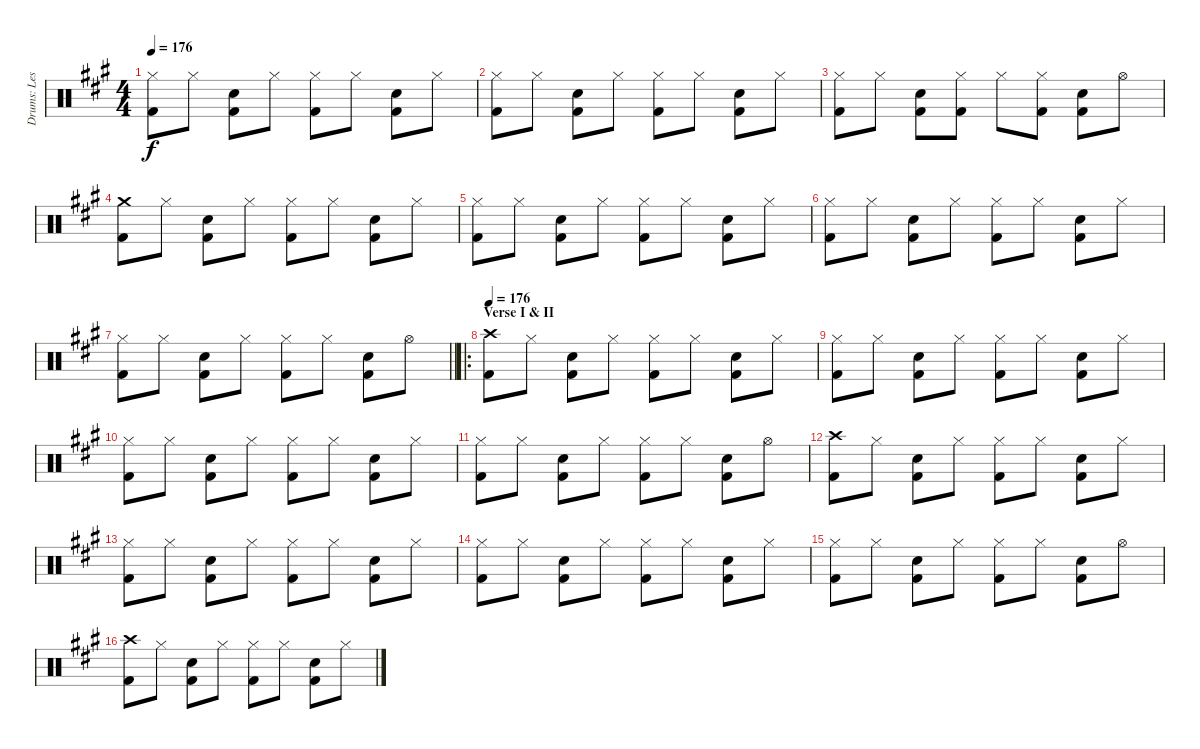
\track ("Drums: Les" "Drums: Les") {instrument percussion}
\staff {score}
\articulation defaults
\ts (4 4)
\tempo 176
\clef neutral
\ks a
("Hi-Hat (closed)" "Kick (hit) 2").8{dy f} "Hi-Hat (closed)".8 ("Snare (hit) 2" "Kick (hit) 2").8 "Hi-Hat (closed)".8 ("Hi-Hat (closed)" "Kick (hit) 2").8 "Hi-Hat (closed)".8 ("Snare (hit) 2" "Kick (hit) 2").8 "Hi-Hat (closed)".8 |
("Hi-Hat (closed)" "Kick (hit) 2").8 "Hi-Hat (closed)".8 ("Snare (hit) 2" "Kick (hit) 2").8 "Hi-Hat (closed)".8 ("Hi-Hat (closed)" "Kick (hit) 2").8 "Hi-Hat (closed)".8 ("Snare (hit) 2" "Kick (hit) 2").8 "Hi-Hat (closed)".8 |
("Hi-Hat (closed)" "Kick (hit) 2").8 "Hi-Hat (closed)".8 ("Snare (hit) 2" "Kick (hit) 2").8 ("Hi-Hat (closed)" "Kick (hit) 2").8 "Hi-Hat (closed)".8 ("Hi-Hat (closed)" "Kick (hit) 2").8 ("Snare (hit) 2" "Kick (hit) 2").8 "Hi-Hat (open)".8 |
("Crash medium (hit)" "Kick (hit) 2").8 "Hi-Hat (closed)".8 ("Snare (hit) 2" "Kick (hit) 2").8 "Hi-Hat (closed)".8 ("Hi-Hat (closed)" "Kick (hit) 2").8 "Hi-Hat (closed)".8 ("Snare (hit) 2" "Kick (hit) 2").8 "Hi-Hat (closed)".8 |
("Hi-Hat (closed)" "Kick (hit) 2").8 "Hi-Hat (closed)".8 ("Snare (hit) 2" "Kick (hit) 2").8 "Hi-Hat (closed)".8 ("Hi-Hat (closed)" "Kick (hit) 2").8 "Hi-Hat (closed)".8 ("Snare (hit) 2" "Kick (hit) 2").8 "Hi-Hat (closed)".8 |
("Hi-Hat (closed)" "Kick (hit) 2").8 "Hi-Hat (closed)".8 ("Snare (hit) 2" "Kick (hit) 2").8 "Hi-Hat (closed)".8 ("Hi-Hat (closed)" "Kick (hit) 2").8 "Hi-Hat (closed)".8 ("Snare (hit) 2" "Kick (hit) 2").8 "Hi-Hat (closed)".8 |
\barLineRight lightlight
("Hi-Hat (closed)" "Kick (hit) 2").8 "Hi-Hat (closed)".8 ("Snare (hit) 2" "Kick (hit) 2").8 "Hi-Hat (closed)".8 ("Hi-Hat (closed)" "Kick (hit) 2").8 "Hi-Hat (closed)".8 ("Snare (hit) 2" "Kick (hit) 2").8 "Hi-Hat (open)".8 |
\ro
\section ("" "Verse I & II")
\tempo 176
("Crash high (hit)" "Kick (hit) 2").8 "Hi-Hat (closed)".8 ("Snare (hit) 2" "Kick (hit) 2").8 "Hi-Hat (closed)".8 ("Hi-Hat (closed)" "Kick (hit) 2").8 "Hi-Hat (closed)".8 ("Snare (hit) 2" "Kick (hit) 2").8 "Hi-Hat (closed)".8 |
("Hi-Hat (closed)" "Kick (hit) 2").8 "Hi-Hat (closed)".8 ("Snare (hit) 2" "Kick (hit) 2").8 "Hi-Hat (closed)".8 ("Hi-Hat (closed)" "Kick (hit) 2").8 "Hi-Hat (closed)".8 ("Snare (hit) 2" "Kick (hit) 2").8 "Hi-Hat (closed)".8 |
("Hi-Hat (closed)" "Kick (hit) 2").8 "Hi-Hat (closed)".8 ("Snare (hit) 2" "Kick (hit) 2").8 "Hi-Hat (closed)".8 ("Hi-Hat (closed)" "Kick (hit) 2").8 "Hi-Hat (closed)".8 ("Snare (hit) 2" "Kick (hit) 2").8 "Hi-Hat (closed)".8 |
("Hi-Hat (closed)" "Kick (hit) 2").8 "Hi-Hat (closed)".8 ("Snare (hit) 2" "Kick (hit) 2").8 "Hi-Hat (closed)".8 ("Hi-Hat (closed)" "Kick (hit) 2").8 "Hi-Hat (closed)".8 ("Snare (hit) 2" "Kick (hit) 2").8 "Hi-Hat (open)".8 |
("Crash high (hit)" "Kick (hit) 2").8 "Hi-Hat (closed)".8 ("Snare (hit) 2" "Kick (hit) 2").8 "Hi-Hat (closed)".8 ("Hi-Hat (closed)" "Kick (hit) 2").8 "Hi-Hat (closed)".8 ("Snare (hit) 2" "Kick (hit) 2").8 "Hi-Hat (closed)".8 |
("Hi-Hat (closed)" "Kick (hit) 2").8 "Hi-Hat (closed)".8 ("Snare (hit) 2" "Kick (hit) 2").8 "Hi-Hat (closed)".8 ("Hi-Hat (closed)" "Kick (hit) 2").8 "Hi-Hat (closed)".8 ("Snare (hit) 2" "Kick (hit) 2").8 "Hi-Hat (closed)".8 |
("Hi-Hat (closed)" "Kick (hit) 2").8 "Hi-Hat (closed)".8 ("Snare (hit) 2" "Kick (hit) 2").8 "Hi-Hat (closed)".8 ("Hi-Hat (closed)" "Kick (hit) 2").8 "Hi-Hat (closed)".8 ("Snare (hit) 2" "Kick (hit) 2").8 "Hi-Hat (closed)".8 |
("Hi-Hat (closed)" "Kick (hit) 2").8 "Hi-Hat (closed)".8 ("Snare (hit) 2" "Kick (hit) 2").8 "Hi-Hat (closed)".8 ("Hi-Hat (closed)" "Kick (hit) 2").8 "Hi-Hat (closed)".8 ("Snare (hit) 2" "Kick (hit) 2").8 "Hi-Hat (open)".8 |
("Crash high (hit)" "Kick (hit) 2").8 "Hi-Hat (closed)".8 ("Snare (hit) 2" "Kick (hit) 2").8 "Hi-Hat (closed)".8 ("Hi-Hat (closed)" "Kick (hit) 2").8 "Hi-Hat (closed)".8 ("Snare (hit) 2" "Kick (hit) 2").8 "Hi-Hat (closed)".8
